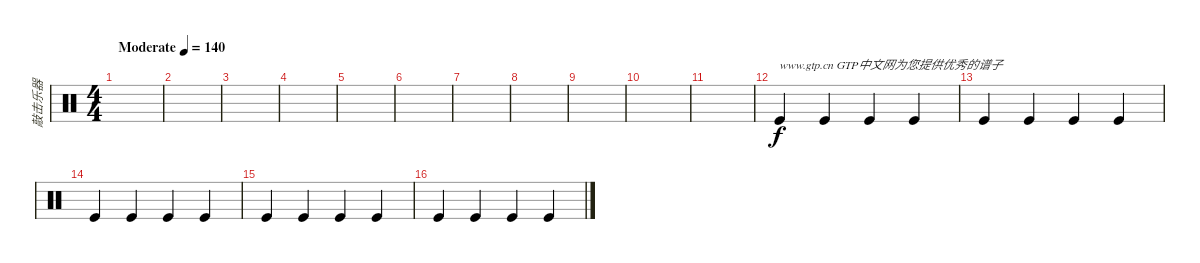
\track ("敲击乐器" "敲击乐器") {instrument percussion}
\staff {score}
\articulation defaults
\ts (4 4)
\tempo (140 "Moderate")
\clef neutral
\ks c
|
|
|
|
|
|
|
|
|
|
|
"Kick (hit)".4{txt "www.gtp.cn GTP中文网为您提供优秀的谱子"} "Kick (hit)".4 "Kick (hit)".4 "Kick (hit)".4 |
"Kick (hit)".4 "Kick (hit)".4 "Kick (hit)".4 "Kick (hit)".4 |
"Kick (hit)".4 "Kick (hit)".4 "Kick (hit)".4 "Kick (hit)".4 |
"Kick (hit)".4 "Kick (hit)".4 "Kick (hit)".4 "Kick (hit)".4 |
"Kick (hit)".4 "Kick (hit)".4 "Kick (hit)".4 "Kick (hit)".4
